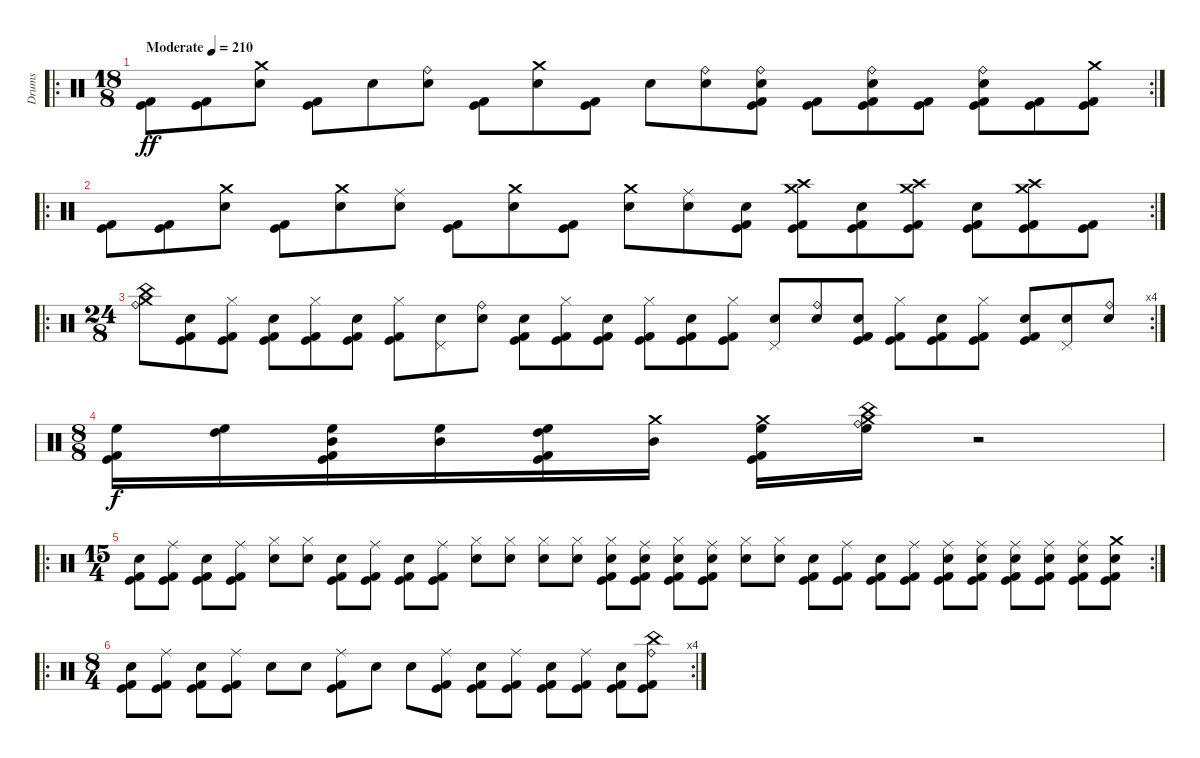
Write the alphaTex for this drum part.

\track ("Drums" "Drums") {instrument percussion}
\staff {score}
\articulation defaults
\ro
\rc 2
\ts (18 8)
\tempo (210 "Moderate")
\clef neutral
\ks c
("Kick (hit)" "Kick (hit) 2").8{dy ff} ("Kick (hit)" "Kick (hit) 2").8 ("Crash medium (hit)" "Snare (hit) 2").8 ("Kick (hit)" "Kick (hit) 2").8 "Snare (hit) 2".8 ("Ride (bell)" "Snare (hit) 2").8 ("Kick (hit)" "Kick (hit) 2").8 ("Crash medium (hit)" "Snare (hit) 2").8 ("Kick (hit)" "Kick (hit) 2").8 "Snare (hit) 2".8 ("Ride (bell)" "Snare (hit) 2").8 ("Ride (bell)" "Snare (hit) 2" "Kick (hit)" "Kick (hit) 2").8 ("Kick (hit)" "Kick (hit) 2").8 ("Ride (bell)" "Snare (hit) 2" "Kick (hit)" "Kick (hit) 2").8 ("Kick (hit)" "Kick (hit) 2").8 ("Ride (bell)" "Snare (hit) 2" "Kick (hit)" "Kick (hit) 2").8 ("Kick (hit)" "Kick (hit) 2").8 ("Crash medium (hit)" "Kick (hit)" "Kick (hit) 2").8 |
\ro
\rc 2
("Kick (hit)" "Kick (hit) 2").8 ("Kick (hit)" "Kick (hit) 2").8 ("Crash medium (hit)" "Snare (hit) 2").8 ("Kick (hit)" "Kick (hit) 2").8 ("Crash medium (hit)" "Snare (hit) 2").8 ("Ride (middle)" "Snare (hit) 2").8 ("Kick (hit)" "Kick (hit) 2").8 ("Crash medium (hit)" "Snare (hit) 2").8 ("Kick (hit)" "Kick (hit) 2").8 ("Crash medium (hit)" "Snare (hit) 2").8 ("Ride (middle)" "Snare (hit) 2").8 ("Snare (hit) 2" "Kick (hit)" "Kick (hit) 2").8 ("Crash medium (hit)" "Crash high (hit)" "Kick (hit)" "Kick (hit) 2").8 ("Snare (hit) 2" "Kick (hit)" "Kick (hit) 2").8 ("Crash medium (hit)" "Crash high (hit)" "Kick (hit)" "Kick (hit) 2").8 ("Snare (hit) 2" "Kick (hit)" "Kick (hit) 2").8 ("Crash medium (hit)" "Crash high (hit)" "Kick (hit)" "Kick (hit) 2").8 ("Kick (hit)" "Kick (hit) 2").8 |
\ro
\rc 4
\ts (24 8)
("Crash medium (hit)" "Ride (bell)" "China (hit)").8 ("Snare (hit) 2" "Kick (hit)" "Kick (hit) 2").8 ("Hi-Hat (closed)" "Kick (hit)" "Kick (hit) 2").8 ("Snare (hit) 2" "Kick (hit)" "Kick (hit) 2").8 ("Hi-Hat (closed)" "Kick (hit)" "Kick (hit) 2").8 ("Snare (hit) 2" "Kick (hit)" "Kick (hit) 2").8 ("Hi-Hat (closed)" "Kick (hit)" "Kick (hit) 2").8 ("Pedal Hi-Hat (hit)" "Snare (hit) 2").8 ("Ride (bell)" "Snare (hit) 2").8 ("Snare (hit) 2" "Kick (hit)" "Kick (hit) 2").8 ("Hi-Hat (closed)" "Kick (hit)" "Kick (hit) 2").8 ("Snare (hit) 2" "Kick (hit)" "Kick (hit) 2").8 ("Hi-Hat (closed)" "Kick (hit)" "Kick (hit) 2").8 ("Snare (hit) 2" "Kick (hit)" "Kick (hit) 2").8 ("Hi-Hat (closed)" "Kick (hit)" "Kick (hit) 2").8 ("Pedal Hi-Hat (hit)" "Snare (hit) 2").8 ("Ride (bell)" "Snare (hit) 2").8 ("Snare (hit) 2" "Kick (hit)" "Kick (hit) 2").8 ("Hi-Hat (closed)" "Kick (hit)" "Kick (hit) 2").8 ("Snare (hit) 2" "Kick (hit)" "Kick (hit) 2").8 ("Hi-Hat (closed)" "Kick (hit)" "Kick (hit) 2").8 ("Snare (hit) 2" "Kick (hit)" "Kick (hit) 2").8 ("Pedal Hi-Hat (hit)" "Snare (hit) 2").8 ("Ride (bell)" "Snare (hit) 2").8 |
\ts (8 8)
("High Floor Tom (hit)" "Kick (hit)" "Kick (hit) 2").16{dy f} ("High Tom (hit)" "High Floor Tom (hit)").16 ("Mid Tom (hit)" "High Floor Tom (hit)" "Kick (hit)" "Kick (hit) 2").16 ("Mid Tom (hit)" "High Floor Tom (hit)").16 ("High Tom (hit)" "High Floor Tom (hit)" "Kick (hit)" "Kick (hit) 2").16 ("Crash medium (hit)" "Mid Tom (hit)").16 ("Crash medium (hit)" "High Floor Tom (hit)" "Kick (hit)" "Kick (hit) 2").16 ("Crash medium (hit)" "Ride (bell)" "China (hit)" "High Floor Tom (hit)").16 r.2 |
\ro
\rc 2
\ts (15 4)
("Snare (hit) 2" "Kick (hit)" "Kick (hit) 2").8 ("Ride (middle)" "Kick (hit)" "Kick (hit) 2").8 ("Snare (hit) 2" "Kick (hit)" "Kick (hit) 2").8 ("Ride (middle)" "Kick (hit)" "Kick (hit) 2").8 ("Hi-Hat (closed)" "Snare (hit) 2").8 ("Hi-Hat (closed)" "Snare (hit) 2").8 ("Snare (hit) 2" "Kick (hit)" "Kick (hit) 2").8 ("Ride (middle)" "Kick (hit)" "Kick (hit) 2").8 ("Snare (hit) 2" "Kick (hit)" "Kick (hit) 2").8 ("Ride (middle)" "Kick (hit)" "Kick (hit) 2").8 ("Hi-Hat (closed)" "Snare (hit) 2").8 ("Hi-Hat (closed)" "Snare (hit) 2").8 ("Hi-Hat (closed)" "Snare (hit) 2").8 ("Hi-Hat (closed)" "Snare (hit) 2").8 ("Hi-Hat (closed)" "Snare (hit) 2" "Kick (hit)" "Kick (hit) 2").8 ("Ride (middle)" "Snare (hit) 2" "Kick (hit)" "Kick (hit) 2").8 ("Hi-Hat (closed)" "Snare (hit) 2" "Kick (hit)" "Kick (hit) 2").8 ("Ride (middle)" "Snare (hit) 2" "Kick (hit)" "Kick (hit) 2").8 ("Hi-Hat (closed)" "Snare (hit) 2").8 ("Hi-Hat (closed)" "Snare (hit) 2").8 ("Snare (hit) 2" "Kick (hit)" "Kick (hit) 2").8 ("Ride (middle)" "Kick (hit)" "Kick (hit) 2").8 ("Snare (hit) 2" "Kick (hit)" "Kick (hit) 2").8 ("Ride (middle)" "Kick (hit)" "Kick (hit) 2").8 ("Ride (middle)" "Snare (hit) 2" "Kick (hit)" "Kick (hit) 2").8 ("Ride (middle)" "Snare (hit) 2" "Kick (hit)" "Kick (hit) 2").8 ("Ride (middle)" "Snare (hit) 2" "Kick (hit)" "Kick (hit) 2").8 ("Ride (middle)" "Snare (hit) 2" "Kick (hit)" "Kick (hit) 2").8 ("Ride (middle)" "Snare (hit) 2" "Kick (hit)" "Kick (hit) 2").8 ("Crash medium (hit)" "Snare (hit) 2" "Kick (hit)" "Kick (hit) 2").8 |
\ro
\rc 4
\ts (8 4)
("Snare (hit) 2" "Kick (hit)" "Kick (hit) 2").8 ("Ride (middle)" "Kick (hit)" "Kick (hit) 2").8 ("Snare (hit) 2" "Kick (hit)" "Kick (hit) 2").8 ("Ride (middle)" "Kick (hit)" "Kick (hit) 2").8 "Snare (hit) 2".8 "Snare (hit) 2".8 ("Ride (middle)" "Kick (hit)" "Kick (hit) 2").8 "Snare (hit) 2".8 "Snare (hit) 2".8 ("Ride (middle)" "Kick (hit)" "Kick (hit) 2").8 ("Snare (hit) 2" "Kick (hit)" "Kick (hit) 2").8 ("Ride (middle)" "Kick (hit)" "Kick (hit) 2").8 ("Snare (hit) 2" "Kick (hit)" "Kick (hit) 2").8 ("Ride (middle)" "Kick (hit)" "Kick (hit) 2").8 ("Snare (hit) 2" "Kick (hit)" "Kick (hit) 2").8 ("Ride (bell)" "China (hit)" "Kick (hit)" "Kick (hit) 2").8
